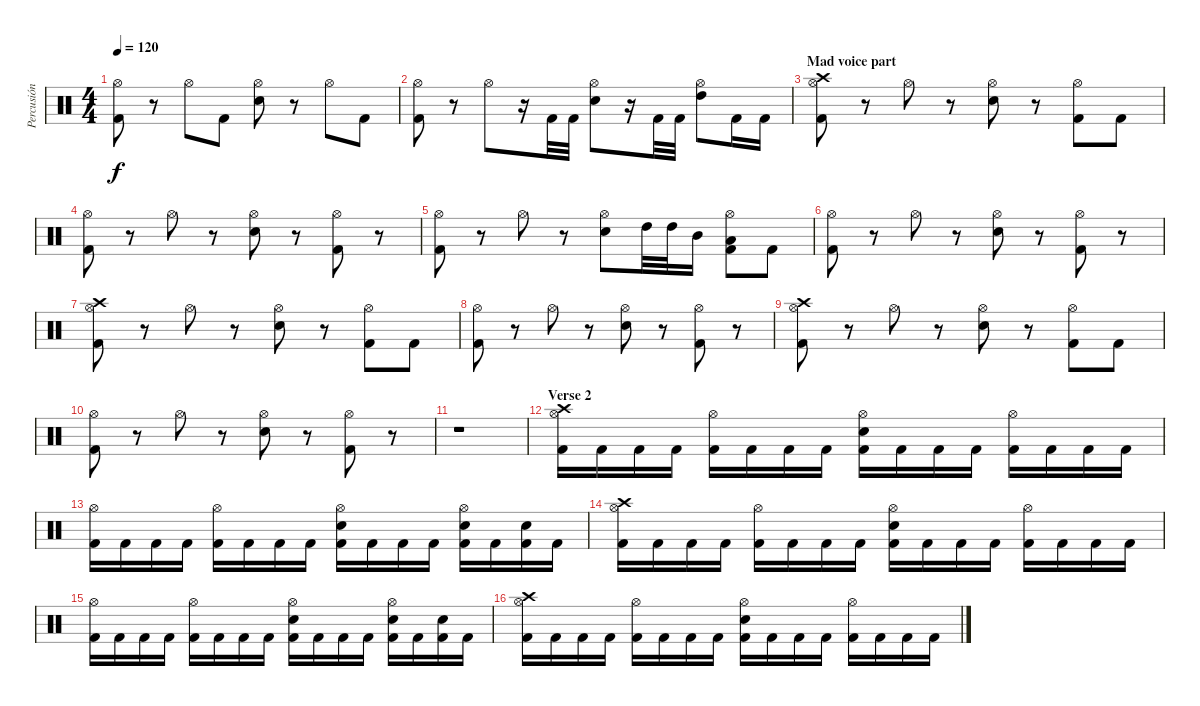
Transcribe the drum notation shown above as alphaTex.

\track ("Percusión" "Percusión") {instrument percussion}
\staff {score}
\articulation defaults
\ts (4 4)
\tempo 120
\clef neutral
\ks c
("Hi-Hat (open)" "Kick (hit) 2").8{dy f} r.8 "Hi-Hat (open)".8 "Kick (hit) 2".8 ("Hi-Hat (open)" "Electric Snare (hit)").8 r.8 "Hi-Hat (open)".8 "Kick (hit) 2".8 |
("Hi-Hat (open)" "Kick (hit) 2").8 r.8 "Hi-Hat (open)".8 r.16 "Kick (hit) 2".32 "Kick (hit) 2".32 ("Hi-Hat (open)" "Electric Snare (hit)").8 r.16 "Kick (hit) 2".32 "Kick (hit) 2".32 ("Hi-Hat (open)" "High Tom (hit)").8 "Kick (hit) 2".16 "Kick (hit) 2".16 |
\section ("" "Mad voice part")
("Crash high (hit)" "Hi-Hat (open)" "Kick (hit) 2").8 r.8 "Hi-Hat (open)".8 r.8 ("Hi-Hat (open)" "Electric Snare (hit)").8 r.8 ("Hi-Hat (open)" "Kick (hit) 2").8 "Kick (hit) 2".8 |
("Hi-Hat (open)" "Kick (hit) 2").8 r.8 "Hi-Hat (open)".8 r.8 ("Hi-Hat (open)" "Electric Snare (hit)").8 r.8 ("Hi-Hat (open)" "Kick (hit) 2").8 r.8 |
("Hi-Hat (open)" "Kick (hit) 2").8 r.8 "Hi-Hat (open)".8 r.8 ("Hi-Hat (open)" "Electric Snare (hit)").8 "High Tom (hit)".32 "High Tom (hit)".32 "Mid Tom (hit)".16 ("Hi-Hat (open)" "Low Tom (hit)" "Kick (hit) 2").8 "Kick (hit) 2".8 |
("Hi-Hat (open)" "Kick (hit) 2").8 r.8 "Hi-Hat (open)".8 r.8 ("Hi-Hat (open)" "Electric Snare (hit)").8 r.8 ("Hi-Hat (open)" "Kick (hit) 2").8 r.8 |
("Crash high (hit)" "Hi-Hat (open)" "Kick (hit) 2").8 r.8 "Hi-Hat (open)".8 r.8 ("Hi-Hat (open)" "Electric Snare (hit)").8 r.8 ("Hi-Hat (open)" "Kick (hit) 2").8 "Kick (hit) 2".8 |
("Hi-Hat (open)" "Kick (hit) 2").8 r.8 "Hi-Hat (open)".8 r.8 ("Hi-Hat (open)" "Electric Snare (hit)").8 r.8 ("Hi-Hat (open)" "Kick (hit) 2").8 r.8 |
("Crash high (hit)" "Hi-Hat (open)" "Kick (hit) 2").8 r.8 "Hi-Hat (open)".8 r.8 ("Hi-Hat (open)" "Electric Snare (hit)").8 r.8 ("Hi-Hat (open)" "Kick (hit) 2").8 "Kick (hit) 2".8 |
("Hi-Hat (open)" "Kick (hit) 2").8 r.8 "Hi-Hat (open)".8 r.8 ("Hi-Hat (open)" "Electric Snare (hit)").8 r.8 ("Hi-Hat (open)" "Kick (hit) 2").8 r.8 |
r.1 |
\section ("" "Verse 2")
("Crash high (hit)" "Hi-Hat (open)" "Kick (hit) 2").16 "Kick (hit) 2".16 "Kick (hit) 2".16 "Kick (hit) 2".16 ("Hi-Hat (open)" "Kick (hit) 2").16 "Kick (hit) 2".16 "Kick (hit) 2".16 "Kick (hit) 2".16 ("Hi-Hat (open)" "Electric Snare (hit)" "Kick (hit) 2").16 "Kick (hit) 2".16 "Kick (hit) 2".16 "Kick (hit) 2".16 ("Hi-Hat (open)" "Kick (hit) 2").16 "Kick (hit) 2".16 "Kick (hit) 2".16 "Kick (hit) 2".16 |
("Hi-Hat (open)" "Kick (hit) 2").16 "Kick (hit) 2".16 "Kick (hit) 2".16 "Kick (hit) 2".16 ("Hi-Hat (open)" "Kick (hit) 2").16 "Kick (hit) 2".16 "Kick (hit) 2".16 "Kick (hit) 2".16 ("Hi-Hat (open)" "Electric Snare (hit)" "Kick (hit) 2").16 "Kick (hit) 2".16 "Kick (hit) 2".16 "Kick (hit) 2".16 ("Hi-Hat (open)" "Electric Snare (hit)" "Kick (hit) 2").16 "Kick (hit) 2".16 ("Electric Snare (hit)" "Kick (hit) 2").16 "Kick (hit) 2".16 |
("Crash high (hit)" "Hi-Hat (open)" "Kick (hit) 2").16 "Kick (hit) 2".16 "Kick (hit) 2".16 "Kick (hit) 2".16 ("Hi-Hat (open)" "Kick (hit) 2").16 "Kick (hit) 2".16 "Kick (hit) 2".16 "Kick (hit) 2".16 ("Hi-Hat (open)" "Electric Snare (hit)" "Kick (hit) 2").16 "Kick (hit) 2".16 "Kick (hit) 2".16 "Kick (hit) 2".16 ("Hi-Hat (open)" "Kick (hit) 2").16 "Kick (hit) 2".16 "Kick (hit) 2".16 "Kick (hit) 2".16 |
("Hi-Hat (open)" "Kick (hit) 2").16 "Kick (hit) 2".16 "Kick (hit) 2".16 "Kick (hit) 2".16 ("Hi-Hat (open)" "Kick (hit) 2").16 "Kick (hit) 2".16 "Kick (hit) 2".16 "Kick (hit) 2".16 ("Hi-Hat (open)" "Electric Snare (hit)" "Kick (hit) 2").16 "Kick (hit) 2".16 "Kick (hit) 2".16 "Kick (hit) 2".16 ("Hi-Hat (open)" "Electric Snare (hit)" "Kick (hit) 2").16 "Kick (hit) 2".16 ("Electric Snare (hit)" "Kick (hit) 2").16 "Kick (hit) 2".16 |
("Crash high (hit)" "Hi-Hat (open)" "Kick (hit) 2").16 "Kick (hit) 2".16 "Kick (hit) 2".16 "Kick (hit) 2".16 ("Hi-Hat (open)" "Kick (hit) 2").16 "Kick (hit) 2".16 "Kick (hit) 2".16 "Kick (hit) 2".16 ("Hi-Hat (open)" "Electric Snare (hit)" "Kick (hit) 2").16 "Kick (hit) 2".16 "Kick (hit) 2".16 "Kick (hit) 2".16 ("Hi-Hat (open)" "Kick (hit) 2").16 "Kick (hit) 2".16 "Kick (hit) 2".16 "Kick (hit) 2".16
